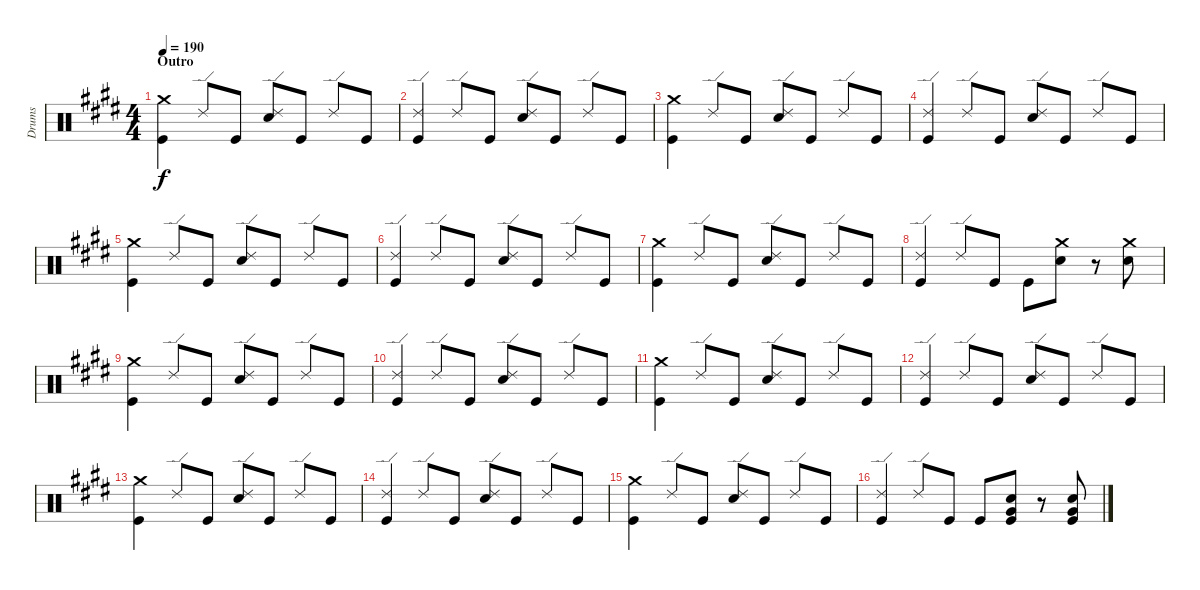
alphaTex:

\track ("Drums" "Drums") {instrument percussion}
\staff {score}
\articulation defaults
\ts (4 4)
\section ("" "Outro")
\tempo 190
\clef neutral
\ks e
("Kick (hit)" "Crash medium (hit)").4{dy f} "Ride (edge) 2".8 "Kick (hit)".8 ("Snare (hit) 2" "Ride (edge) 2").8 "Kick (hit)".8 "Ride (edge) 2".8 "Kick (hit)".8 |
("Kick (hit)" "Ride (edge) 2").4 "Ride (edge) 2".8 "Kick (hit)".8 ("Snare (hit) 2" "Ride (edge) 2").8 "Kick (hit)".8 "Ride (edge) 2".8 "Kick (hit)".8 |
("Kick (hit)" "Crash medium (hit)").4 "Ride (edge) 2".8 "Kick (hit)".8 ("Snare (hit) 2" "Ride (edge) 2").8 "Kick (hit)".8 "Ride (edge) 2".8 "Kick (hit)".8 |
("Kick (hit)" "Ride (edge) 2").4 "Ride (edge) 2".8 "Kick (hit)".8 ("Snare (hit) 2" "Ride (edge) 2").8 "Kick (hit)".8 "Ride (edge) 2".8 "Kick (hit)".8 |
("Kick (hit)" "Crash medium (hit)").4 "Ride (edge) 2".8 "Kick (hit)".8 ("Snare (hit) 2" "Ride (edge) 2").8 "Kick (hit)".8 "Ride (edge) 2".8 "Kick (hit)".8 |
("Kick (hit)" "Ride (edge) 2").4 "Ride (edge) 2".8 "Kick (hit)".8 ("Snare (hit) 2" "Ride (edge) 2").8 "Kick (hit)".8 "Ride (edge) 2".8 "Kick (hit)".8 |
("Kick (hit)" "Crash medium (hit)").4 "Ride (edge) 2".8 "Kick (hit)".8 ("Snare (hit) 2" "Ride (edge) 2").8 "Kick (hit)".8 "Ride (edge) 2".8 "Kick (hit)".8 |
("Kick (hit)" "Ride (edge) 2").4 "Ride (edge) 2".8 "Kick (hit)".8 "Kick (hit)".8 ("Snare (hit) 2" "Crash medium (hit)").8 r.8 ("Snare (hit) 2" "Crash medium (hit)").8 |
("Kick (hit)" "Crash medium (hit)").4 "Ride (edge) 2".8 "Kick (hit)".8 ("Snare (hit) 2" "Ride (edge) 2").8 "Kick (hit)".8 "Ride (edge) 2".8 "Kick (hit)".8 |
("Kick (hit)" "Ride (edge) 2").4 "Ride (edge) 2".8 "Kick (hit)".8 ("Snare (hit) 2" "Ride (edge) 2").8 "Kick (hit)".8 "Ride (edge) 2".8 "Kick (hit)".8 |
("Kick (hit)" "Crash medium (hit)").4 "Ride (edge) 2".8 "Kick (hit)".8 ("Snare (hit) 2" "Ride (edge) 2").8 "Kick (hit)".8 "Ride (edge) 2".8 "Kick (hit)".8 |
("Kick (hit)" "Ride (edge) 2").4 "Ride (edge) 2".8 "Kick (hit)".8 ("Snare (hit) 2" "Ride (edge) 2").8 "Kick (hit)".8 "Ride (edge) 2".8 "Kick (hit)".8 |
("Kick (hit)" "Crash medium (hit)").4 "Ride (edge) 2".8 "Kick (hit)".8 ("Snare (hit) 2" "Ride (edge) 2").8 "Kick (hit)".8 "Ride (edge) 2".8 "Kick (hit)".8 |
("Kick (hit)" "Ride (edge) 2").4 "Ride (edge) 2".8 "Kick (hit)".8 ("Snare (hit) 2" "Ride (edge) 2").8 "Kick (hit)".8 "Ride (edge) 2".8 "Kick (hit)".8 |
("Kick (hit)" "Crash medium (hit)").4 "Ride (edge) 2".8 "Kick (hit)".8 ("Snare (hit) 2" "Ride (edge) 2").8 "Kick (hit)".8 "Ride (edge) 2".8 "Kick (hit)".8 |
("Kick (hit)" "Ride (edge) 2").4 "Ride (edge) 2".8 "Kick (hit)".8 "Kick (hit)".8 ("Very Low Tom (hit)" "Kick (hit)" "Snare (hit) 2").8 r.8 ("Very Low Tom (hit)" "Kick (hit)" "Snare (hit) 2").8
